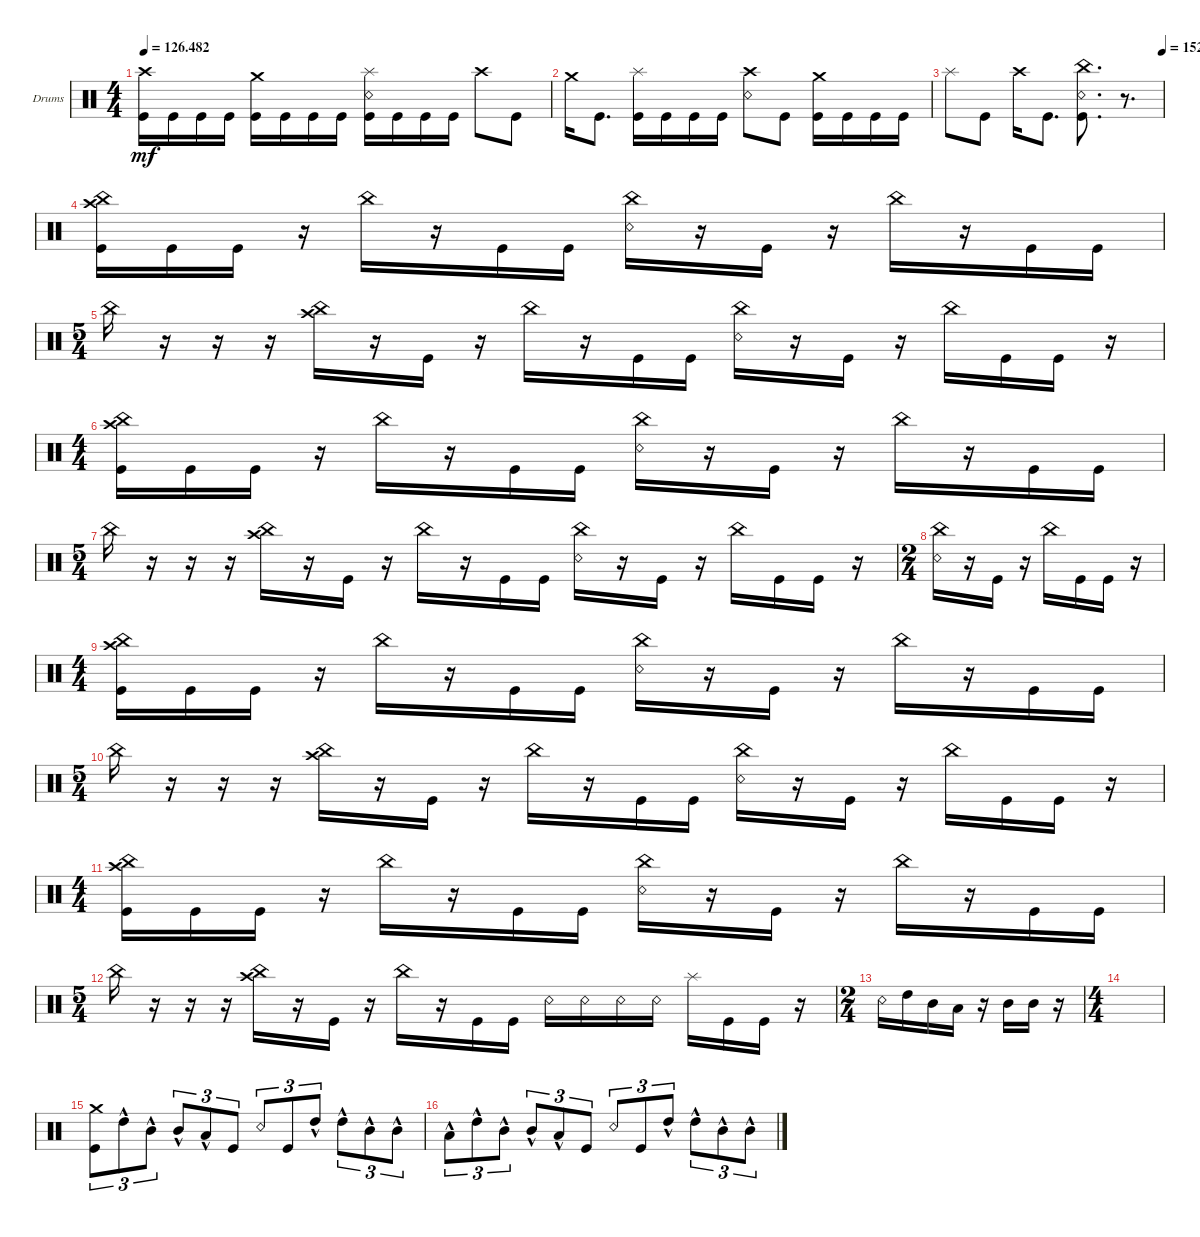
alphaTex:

\defaultSystemsLayout 4
\bracketExtendMode groupsimilarinstruments
\firstSystemTrackNameOrientation horizontal
\otherSystemsTrackNameOrientation horizontal
\track ("Drumkit" "Drums") {instrument percussion}
\staff {score}
\articulation defaults
\ts (4 4)
\tempo
126.482
\accidentals auto
\clef neutral
\ottava regular
\simile none
\ks c
("Kick (hit)" "Crash high (hit)").16{dy mf} "Kick (hit)".16 "Kick (hit)".16 "Kick (hit)".16 ("Kick (hit)" "Crash medium (hit)").16 "Kick (hit)".16 "Kick (hit)".16 "Kick (hit)".16 ("Kick (hit)" "Snare (rim shot)" "Splash (hit)").16 "Kick (hit)".16 "Kick (hit)".16 "Kick (hit)".16 "Crash high (hit)".8 "Kick (hit)".8 |
"Crash medium (hit)".16 "Kick (hit)".8{d} ("Kick (hit)" "Splash (hit)").16 "Kick (hit)".16 "Kick (hit)".16 "Kick (hit)".16 ("Snare (rim shot)" "Crash high (hit)").8 "Kick (hit)".8 ("Kick (hit)" "Crash medium (hit)").16 "Kick (hit)".16 "Kick (hit)".16 "Kick (hit)".16 |
\tempo (152 1)
"Splash (hit)".8 "Kick (hit)".8 "Crash high (hit)".16 "Kick (hit)".8{d} ("Kick (hit)" "Snare (rim shot)" "China (hit)").8{d} r.8{d} |
("Kick (hit)" "China (hit)" "Crash high (hit)").16 "Kick (hit)".16 "Kick (hit)".16 r.16 "China (hit)".16 r.16 "Kick (hit)".16 "Kick (hit)".16 ("Snare (rim shot)" "China (hit)").16 r.16 "Kick (hit)".16 r.16 "China (hit)".16 r.16 "Kick (hit)".16 "Kick (hit)".16 |
\ts (5 4)
"China (hit)".16 r.16 r.16 r.16 ("China (hit)" "Crash high (hit)").16 r.16 "Kick (hit)".16 r.16 "China (hit)".16 r.16 "Kick (hit)".16 "Kick (hit)".16 ("Snare (rim shot)" "China (hit)").16 r.16 "Kick (hit)".16 r.16 "China (hit)".16 "Kick (hit)".16 "Kick (hit)".16 r.16 |
\ts (4 4)
("Kick (hit)" "China (hit)" "Crash high (hit)").16 "Kick (hit)".16 "Kick (hit)".16 r.16 "China (hit)".16 r.16 "Kick (hit)".16 "Kick (hit)".16 ("Snare (rim shot)" "China (hit)").16 r.16 "Kick (hit)".16 r.16 "China (hit)".16 r.16 "Kick (hit)".16 "Kick (hit)".16 |
\ts (5 4)
"China (hit)".16 r.16 r.16 r.16 ("China (hit)" "Crash high (hit)").16 r.16 "Kick (hit)".16 r.16 "China (hit)".16 r.16 "Kick (hit)".16 "Kick (hit)".16 ("Snare (rim shot)" "China (hit)").16 r.16 "Kick (hit)".16 r.16 "China (hit)".16 "Kick (hit)".16 "Kick (hit)".16 r.16 |
\ts (2 4)
("Snare (rim shot)" "China (hit)").16 r.16 "Kick (hit)".16 r.16 "China (hit)".16 "Kick (hit)".16 "Kick (hit)".16 r.16 |
\ts (4 4)
("Kick (hit)" "China (hit)" "Crash high (hit)").16 "Kick (hit)".16 "Kick (hit)".16 r.16 "China (hit)".16 r.16 "Kick (hit)".16 "Kick (hit)".16 ("Snare (rim shot)" "China (hit)").16 r.16 "Kick (hit)".16 r.16 "China (hit)".16 r.16 "Kick (hit)".16 "Kick (hit)".16 |
\ts (5 4)
"China (hit)".16 r.16 r.16 r.16 ("China (hit)" "Crash high (hit)").16 r.16 "Kick (hit)".16 r.16 "China (hit)".16 r.16 "Kick (hit)".16 "Kick (hit)".16 ("Snare (rim shot)" "China (hit)").16 r.16 "Kick (hit)".16 r.16 "China (hit)".16 "Kick (hit)".16 "Kick (hit)".16 r.16 |
\ts (4 4)
("Kick (hit)" "China (hit)" "Crash high (hit)").16 "Kick (hit)".16 "Kick (hit)".16 r.16 "China (hit)".16 r.16 "Kick (hit)".16 "Kick (hit)".16 ("Snare (rim shot)" "China (hit)").16 r.16 "Kick (hit)".16 r.16 "China (hit)".16 r.16 "Kick (hit)".16 "Kick (hit)".16 |
\ts (5 4)
"China (hit)".16 r.16 r.16 r.16 ("China (hit)" "Crash high (hit)").16 r.16 "Kick (hit)".16 r.16 "China (hit)".16 r.16 "Kick (hit)".16 "Kick (hit)".16 "Snare (rim shot)".16 "Snare (rim shot)".16 "Snare (rim shot)".16 "Snare (rim shot)".16 "Splash (hit)".16 "Kick (hit)".16 "Kick (hit)".16 r.16 |
\ts (2 4)
"Snare (rim shot)".16 "High Tom (hit)".16 "Mid Tom (hit)".16 "Low Tom (hit)".16 r.16 "Mid Tom (hit)".16 "Mid Tom (hit)".16 r.16 |
\ts (4 4)
|
("Kick (hit)" "Crash medium (hit)").8{tu (3 2)} "High Tom (hit)"{hac}.8{tu (3 2)} "Mid Tom (hit)"{hac}.8{tu (3 2)} "Mid Tom (hit)"{hac}.8{tu (3 2)} "Low Tom (hit)"{hac}.8{tu (3 2)} "Kick (hit)".8{tu (3 2)} "Snare (rim shot)".8{tu (3 2)} "Kick (hit)".8{tu (3 2)} "High Tom (hit)"{hac}.8{tu (3 2)} "High Tom (hit)"{hac}.8{tu (3 2)} "Mid Tom (hit)"{hac}.8{tu (3 2)} "Mid Tom (hit)"{hac}.8{tu (3 2)} |
"Low Tom (hit)"{hac}.8{tu (3 2)} "High Tom (hit)"{hac}.8{tu (3 2)} "Mid Tom (hit)"{hac}.8{tu (3 2)} "Mid Tom (hit)"{hac}.8{tu (3 2)} "Low Tom (hit)"{hac}.8{tu (3 2)} "Kick (hit)".8{tu (3 2)} "Snare (rim shot)".8{tu (3 2)} "Kick (hit)".8{tu (3 2)} "High Tom (hit)"{hac}.8{tu (3 2)} "High Tom (hit)"{hac}.8{tu (3 2)} "Mid Tom (hit)"{hac}.8{tu (3 2)} "Mid Tom (hit)"{hac}.8{tu (3 2)}
